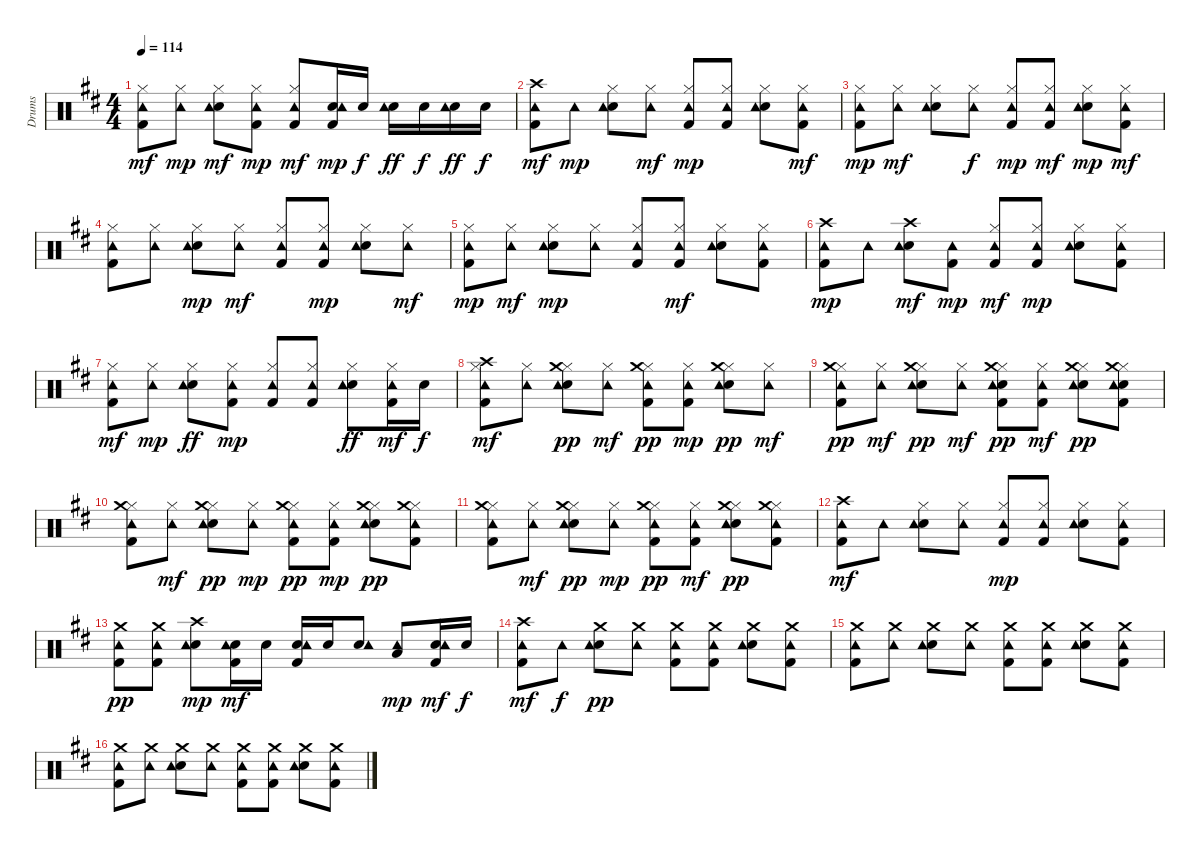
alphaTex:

\track ("Drums" "Drums") {instrument percussion}
\staff {score}
\articulation defaults
\ts (4 4)
\tempo 114
\clef neutral
\ks d
("Kick (hit) 2" "Hi-Hat (closed)" "Tambourine (hit)").8{dy mf} ("Hi-Hat (closed)" "Tambourine (hit)").8{dy mp} ("Snare (hit) 2" "Hi-Hat (closed)" "Tambourine (hit)").8{dy mf} ("Kick (hit) 2" "Hi-Hat (closed)" "Tambourine (hit)").8{dy mp} ("Kick (hit) 2" "Hi-Hat (closed)" "Tambourine (hit)").8{dy mf} ("Kick (hit) 2" "Snare (hit) 2" "Tambourine (hit)").16{dy mp} "Snare (hit) 2".16{dy f} ("Snare (hit) 2" "Tambourine (hit)").16{dy ff} "Snare (hit) 2".16{dy f} ("Snare (hit) 2" "Tambourine (hit)").16{dy ff} "Snare (hit) 2".16{dy f} |
("Kick (hit) 2" "Crash high (hit)" "Tambourine (hit)").8{dy mf} "Tambourine (hit)".8{dy mp} ("Snare (hit) 2" "Hi-Hat (closed)" "Tambourine (hit)").8 ("Hi-Hat (closed)" "Tambourine (hit)").8{dy mf} ("Kick (hit) 2" "Hi-Hat (closed)" "Tambourine (hit)").8{dy mp} ("Kick (hit) 2" "Hi-Hat (closed)" "Tambourine (hit)").8 ("Snare (hit) 2" "Hi-Hat (closed)" "Tambourine (hit)").8 ("Kick (hit) 2" "Hi-Hat (closed)" "Tambourine (hit)").8{dy mf} |
("Kick (hit) 2" "Hi-Hat (closed)" "Tambourine (hit)").8{dy mp} ("Hi-Hat (closed)" "Tambourine (hit)").8{dy mf} ("Snare (hit) 2" "Hi-Hat (closed)" "Tambourine (hit)").8 ("Hi-Hat (closed)" "Tambourine (hit)").8{dy f} ("Kick (hit) 2" "Hi-Hat (closed)" "Tambourine (hit)").8{dy mp} ("Kick (hit) 2" "Hi-Hat (closed)" "Tambourine (hit)").8{dy mf} ("Snare (hit) 2" "Hi-Hat (closed)" "Tambourine (hit)").8{dy mp} ("Kick (hit) 2" "Hi-Hat (closed)" "Tambourine (hit)").8{dy mf} |
("Kick (hit) 2" "Hi-Hat (closed)" "Tambourine (hit)").8 ("Hi-Hat (closed)" "Tambourine (hit)").8 ("Snare (hit) 2" "Hi-Hat (closed)" "Tambourine (hit)").8{dy mp} ("Hi-Hat (closed)" "Tambourine (hit)").8{dy mf} ("Kick (hit) 2" "Hi-Hat (closed)" "Tambourine (hit)").8 ("Kick (hit) 2" "Hi-Hat (closed)" "Tambourine (hit)").8{dy mp} ("Snare (hit) 2" "Hi-Hat (closed)" "Tambourine (hit)").8 ("Hi-Hat (closed)" "Tambourine (hit)").8{dy mf} |
("Kick (hit) 2" "Hi-Hat (closed)" "Tambourine (hit)").8{dy mp} ("Hi-Hat (closed)" "Tambourine (hit)").8{dy mf} ("Snare (hit) 2" "Hi-Hat (closed)" "Tambourine (hit)").8{dy mp} ("Hi-Hat (closed)" "Tambourine (hit)").8 ("Kick (hit) 2" "Hi-Hat (closed)" "Tambourine (hit)").8 ("Kick (hit) 2" "Hi-Hat (closed)" "Tambourine (hit)").8{dy mf} ("Snare (hit) 2" "Hi-Hat (closed)" "Tambourine (hit)").8 ("Kick (hit) 2" "Hi-Hat (closed)" "Tambourine (hit)").8 |
("Kick (hit) 2" "Crash high (hit)" "Tambourine (hit)").8{dy mp} "Tambourine (hit)".8 ("Snare (hit) 2" "Crash high (hit)" "Tambourine (hit)").8{dy mf} ("Kick (hit) 2" "Tambourine (hit)").8{dy mp} ("Kick (hit) 2" "Hi-Hat (closed)" "Tambourine (hit)").8{dy mf} ("Kick (hit) 2" "Hi-Hat (closed)" "Tambourine (hit)").8{dy mp} ("Snare (hit) 2" "Hi-Hat (closed)" "Tambourine (hit)").8 ("Kick (hit) 2" "Hi-Hat (closed)" "Tambourine (hit)").8 |
("Kick (hit) 2" "Hi-Hat (closed)" "Tambourine (hit)").8{dy mf} ("Hi-Hat (closed)" "Tambourine (hit)").8{dy mp} ("Snare (hit) 2" "Hi-Hat (closed)" "Tambourine (hit)").8{dy ff} ("Kick (hit) 2" "Hi-Hat (closed)" "Tambourine (hit)").8{dy mp} ("Kick (hit) 2" "Hi-Hat (closed)" "Tambourine (hit)").8 ("Kick (hit) 2" "Hi-Hat (closed)" "Tambourine (hit)").8 ("Snare (hit) 2" "Hi-Hat (closed)" "Tambourine (hit)").8{dy ff} ("Kick (hit) 2" "Hi-Hat (closed)" "Tambourine (hit)").16{dy mf} "Snare (hit) 2".16{dy f} |
("Kick (hit) 2" "Hi-Hat (closed)" "Crash high (hit)" "Tambourine (hit)").8{dy mf} ("Hi-Hat (closed)" "Tambourine (hit)").8 ("Snare (hit) 2" "Hi-Hat (closed)" "Tambourine (hit)" "Crash medium (hit)").8{dy pp} ("Hi-Hat (closed)" "Tambourine (hit)").8{dy mf} ("Kick (hit) 2" "Hi-Hat (closed)" "Tambourine (hit)" "Crash medium (hit)").8{dy pp} ("Kick (hit) 2" "Hi-Hat (closed)" "Tambourine (hit)").8{dy mp} ("Snare (hit) 2" "Hi-Hat (closed)" "Tambourine (hit)" "Crash medium (hit)").8{dy pp} ("Hi-Hat (closed)" "Tambourine (hit)").8{dy mf} |
("Kick (hit) 2" "Hi-Hat (closed)" "Tambourine (hit)" "Crash medium (hit)").8{dy pp} ("Hi-Hat (closed)" "Tambourine (hit)").8{dy mf} ("Snare (hit) 2" "Hi-Hat (closed)" "Tambourine (hit)" "Crash medium (hit)").8{dy pp} ("Hi-Hat (closed)" "Tambourine (hit)").8{dy mf} ("Kick (hit) 2" "Snare (hit) 2" "Hi-Hat (closed)" "Tambourine (hit)" "Crash medium (hit)").8{dy pp} ("Kick (hit) 2" "Hi-Hat (closed)" "Tambourine (hit)").8{dy mf} ("Snare (hit) 2" "Hi-Hat (closed)" "Tambourine (hit)" "Crash medium (hit)").8{dy pp} ("Kick (hit) 2" "Snare (hit) 2" "Hi-Hat (closed)" "Tambourine (hit)" "Crash medium (hit)").8 |
("Kick (hit) 2" "Hi-Hat (closed)" "Tambourine (hit)" "Crash medium (hit)").8 ("Hi-Hat (closed)" "Tambourine (hit)").8{dy mf} ("Snare (hit) 2" "Hi-Hat (closed)" "Tambourine (hit)" "Crash medium (hit)").8{dy pp} ("Hi-Hat (closed)" "Tambourine (hit)").8{dy mp} ("Kick (hit) 2" "Hi-Hat (closed)" "Tambourine (hit)" "Crash medium (hit)").8{dy pp} ("Kick (hit) 2" "Hi-Hat (closed)" "Tambourine (hit)").8{dy mp} ("Snare (hit) 2" "Hi-Hat (closed)" "Tambourine (hit)" "Crash medium (hit)").8{dy pp} ("Kick (hit) 2" "Hi-Hat (closed)" "Tambourine (hit)" "Crash medium (hit)").8 |
("Kick (hit) 2" "Hi-Hat (closed)" "Tambourine (hit)" "Crash medium (hit)").8 ("Hi-Hat (closed)" "Tambourine (hit)").8{dy mf} ("Snare (hit) 2" "Hi-Hat (closed)" "Tambourine (hit)" "Crash medium (hit)").8{dy pp} ("Hi-Hat (closed)" "Tambourine (hit)").8{dy mp} ("Kick (hit) 2" "Hi-Hat (closed)" "Tambourine (hit)" "Crash medium (hit)").8{dy pp} ("Kick (hit) 2" "Hi-Hat (closed)" "Tambourine (hit)").8{dy mf} ("Snare (hit) 2" "Hi-Hat (closed)" "Tambourine (hit)" "Crash medium (hit)").8{dy pp} ("Kick (hit) 2" "Hi-Hat (closed)" "Tambourine (hit)" "Crash medium (hit)").8 |
("Kick (hit) 2" "Crash high (hit)" "Tambourine (hit)").8{dy mf} "Tambourine (hit)".8 ("Snare (hit) 2" "Hi-Hat (closed)" "Tambourine (hit)").8 ("Hi-Hat (closed)" "Tambourine (hit)").8 ("Kick (hit) 2" "Hi-Hat (closed)" "Tambourine (hit)").8{dy mp} ("Kick (hit) 2" "Hi-Hat (closed)" "Tambourine (hit)").8 ("Snare (hit) 2" "Hi-Hat (closed)" "Tambourine (hit)").8 ("Kick (hit) 2" "Hi-Hat (closed)" "Tambourine (hit)").8 |
("Kick (hit) 2" "Tambourine (hit)" "Crash medium (hit)").8{dy pp} ("Kick (hit) 2" "Tambourine (hit)" "Crash medium (hit)").8 ("Snare (hit) 2" "Crash high (hit)" "Tambourine (hit)").8{dy mp} ("Kick (hit) 2" "Snare (hit) 2" "Tambourine (hit)").16{dy mf} "Snare (hit) 2".16 ("Kick (hit) 2" "Snare (hit) 2" "Tambourine (hit)").16 "Snare (hit) 2".16 ("Snare (hit) 2" "Tambourine (hit)").8 ("Low Floor Tom (hit)" "Tambourine (hit)").8{dy mp} ("Kick (hit) 2" "Snare (hit) 2" "Tambourine (hit)").16{dy mf} "Snare (hit) 2".16{dy f} |
("Kick (hit) 2" "Crash high (hit)" "Tambourine (hit)").8{dy mf} "Tambourine (hit)".8{dy f} ("Snare (hit) 2" "Tambourine (hit)" "Crash medium (hit)").8{dy pp} ("Tambourine (hit)" "Crash medium (hit)").8 ("Kick (hit) 2" "Tambourine (hit)" "Crash medium (hit)").8 ("Kick (hit) 2" "Tambourine (hit)" "Crash medium (hit)").8 ("Snare (hit) 2" "Tambourine (hit)" "Crash medium (hit)").8 ("Kick (hit) 2" "Tambourine (hit)" "Crash medium (hit)").8 |
("Kick (hit) 2" "Tambourine (hit)" "Crash medium (hit)").8 ("Tambourine (hit)" "Crash medium (hit)").8 ("Snare (hit) 2" "Tambourine (hit)" "Crash medium (hit)").8 ("Tambourine (hit)" "Crash medium (hit)").8 ("Kick (hit) 2" "Tambourine (hit)" "Crash medium (hit)").8 ("Kick (hit) 2" "Tambourine (hit)" "Crash medium (hit)").8 ("Snare (hit) 2" "Tambourine (hit)" "Crash medium (hit)").8 ("Kick (hit) 2" "Tambourine (hit)" "Crash medium (hit)").8 |
("Kick (hit) 2" "Tambourine (hit)" "Crash medium (hit)").8 ("Tambourine (hit)" "Crash medium (hit)").8 ("Snare (hit) 2" "Tambourine (hit)" "Crash medium (hit)").8 ("Tambourine (hit)" "Crash medium (hit)").8 ("Kick (hit) 2" "Tambourine (hit)" "Crash medium (hit)").8 ("Kick (hit) 2" "Tambourine (hit)" "Crash medium (hit)").8 ("Snare (hit) 2" "Tambourine (hit)" "Crash medium (hit)").8 ("Kick (hit) 2" "Tambourine (hit)" "Crash medium (hit)").8
